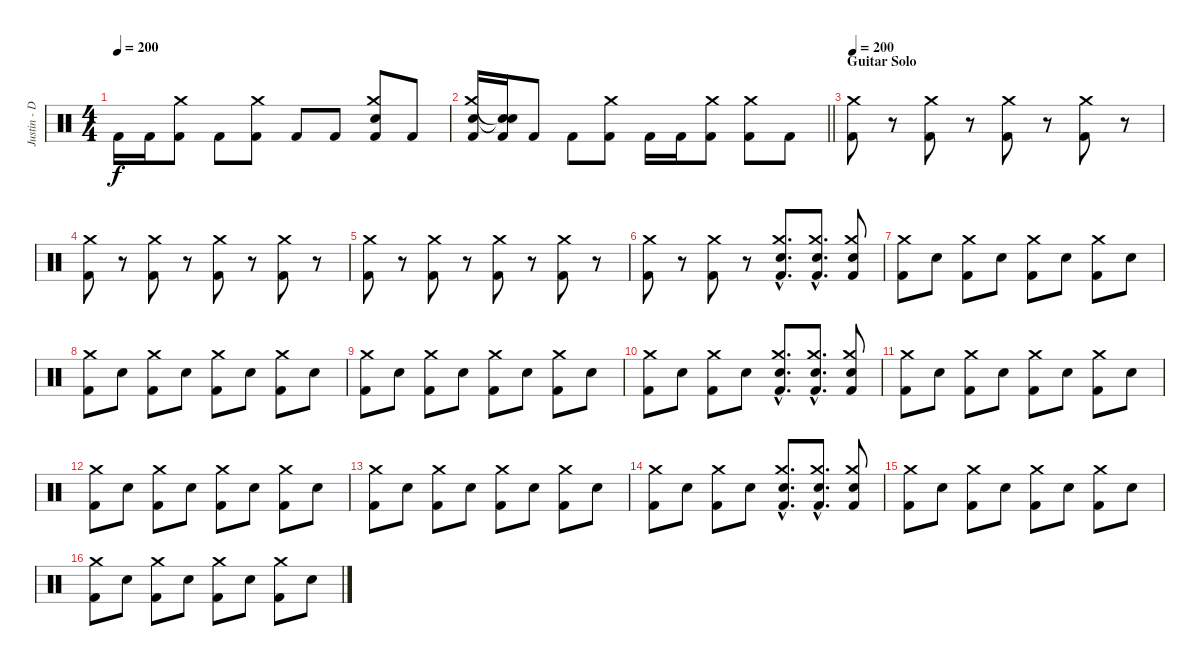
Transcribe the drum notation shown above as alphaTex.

\track ("Justin - Drums" "Justin - D") {instrument percussion}
\staff {score}
\articulation defaults
\ts (4 4)
\tempo 200
\clef neutral
\ks c "Kick (hit) 2".16{dy f} "Kick (hit) 2".16
("Crash medium (hit)" "Kick (hit) 2").8 "Kick (hit) 2".8 ("Crash medium (hit)" "Kick (hit) 2").8 "Kick (hit) 2".8 "Kick (hit) 2".8 ("Crash medium (hit)" "Snare (hit) 2" "Kick (hit) 2").8 "Kick (hit) 2".8 |
\barLineRight lightlight
("Crash medium (hit)" "Snare (hit) 2" "Kick (hit) 2").16 ("Snare (hit)"{t} "Snare (hit)"{t} "Kick (hit) 2").16 "Kick (hit) 2".8 "Kick (hit) 2".8 ("Crash medium (hit)" "Kick (hit) 2").8 "Kick (hit) 2".16 "Kick (hit) 2".16 ("Crash medium (hit)" "Kick (hit) 2").8 ("Crash medium (hit)" "Kick (hit) 2").8 "Kick (hit) 2".8 |
\section ("" "Guitar Solo")
\tempo 200
("Crash medium (hit)" "Kick (hit) 2").8 r.8 ("Crash medium (hit)" "Kick (hit) 2").8 r.8 ("Crash medium (hit)" "Kick (hit) 2").8 r.8 ("Crash medium (hit)" "Kick (hit) 2").8 r.8 |
("Crash medium (hit)" "Kick (hit) 2").8 r.8 ("Crash medium (hit)" "Kick (hit) 2").8 r.8 ("Crash medium (hit)" "Kick (hit) 2").8 r.8 ("Crash medium (hit)" "Kick (hit) 2").8 r.8 |
("Crash medium (hit)" "Kick (hit) 2").8 r.8 ("Crash medium (hit)" "Kick (hit) 2").8 r.8 ("Crash medium (hit)" "Kick (hit) 2").8 r.8 ("Crash medium (hit)" "Kick (hit) 2").8 r.8 |
("Crash medium (hit)" "Kick (hit) 2").8 r.8 ("Crash medium (hit)" "Kick (hit) 2").8 r.8 ("Crash medium (hit)"{hac} "Snare (hit) 2"{hac} "Kick (hit) 2"{hac}).8{d} ("Crash medium (hit)"{hac} "Snare (hit) 2"{hac} "Kick (hit) 2"{hac}).8{d} ("Crash medium (hit)" "Snare (hit) 2" "Kick (hit) 2").8 |
("Crash medium (hit)" "Kick (hit) 2").8 "Snare (hit) 2".8 ("Crash medium (hit)" "Kick (hit) 2").8 "Snare (hit) 2".8 ("Crash medium (hit)" "Kick (hit) 2").8 "Snare (hit) 2".8 ("Crash medium (hit)" "Kick (hit) 2").8 "Snare (hit) 2".8 |
("Crash medium (hit)" "Kick (hit) 2").8 "Snare (hit) 2".8 ("Crash medium (hit)" "Kick (hit) 2").8 "Snare (hit) 2".8 ("Crash medium (hit)" "Kick (hit) 2").8 "Snare (hit) 2".8 ("Crash medium (hit)" "Kick (hit) 2").8 "Snare (hit) 2".8 |
("Crash medium (hit)" "Kick (hit) 2").8 "Snare (hit) 2".8 ("Crash medium (hit)" "Kick (hit) 2").8 "Snare (hit) 2".8 ("Crash medium (hit)" "Kick (hit) 2").8 "Snare (hit) 2".8 ("Crash medium (hit)" "Kick (hit) 2").8 "Snare (hit) 2".8 |
("Crash medium (hit)" "Kick (hit) 2").8 "Snare (hit) 2".8 ("Crash medium (hit)" "Kick (hit) 2").8 "Snare (hit) 2".8 ("Crash medium (hit)"{hac} "Snare (hit) 2"{hac} "Kick (hit) 2"{hac}).8{d} ("Crash medium (hit)"{hac} "Snare (hit) 2"{hac} "Kick (hit) 2"{hac}).8{d} ("Crash medium (hit)" "Snare (hit) 2" "Kick (hit) 2").8 |
("Crash medium (hit)" "Kick (hit) 2").8 "Snare (hit) 2".8 ("Crash medium (hit)" "Kick (hit) 2").8 "Snare (hit) 2".8 ("Crash medium (hit)" "Kick (hit) 2").8 "Snare (hit) 2".8 ("Crash medium (hit)" "Kick (hit) 2").8 "Snare (hit) 2".8 |
("Crash medium (hit)" "Kick (hit) 2").8 "Snare (hit) 2".8 ("Crash medium (hit)" "Kick (hit) 2").8 "Snare (hit) 2".8 ("Crash medium (hit)" "Kick (hit) 2").8 "Snare (hit) 2".8 ("Crash medium (hit)" "Kick (hit) 2").8 "Snare (hit) 2".8 |
("Crash medium (hit)" "Kick (hit) 2").8 "Snare (hit) 2".8 ("Crash medium (hit)" "Kick (hit) 2").8 "Snare (hit) 2".8 ("Crash medium (hit)" "Kick (hit) 2").8 "Snare (hit) 2".8 ("Crash medium (hit)" "Kick (hit) 2").8 "Snare (hit) 2".8 |
("Crash medium (hit)" "Kick (hit) 2").8 "Snare (hit) 2".8 ("Crash medium (hit)" "Kick (hit) 2").8 "Snare (hit) 2".8 ("Crash medium (hit)"{hac} "Snare (hit) 2"{hac} "Kick (hit) 2"{hac}).8{d} ("Crash medium (hit)"{hac} "Snare (hit) 2"{hac} "Kick (hit) 2"{hac}).8{d} ("Crash medium (hit)" "Snare (hit) 2" "Kick (hit) 2").8 |
("Crash medium (hit)" "Kick (hit) 2").8 "Snare (hit) 2".8 ("Crash medium (hit)" "Kick (hit) 2").8 "Snare (hit) 2".8 ("Crash medium (hit)" "Kick (hit) 2").8 "Snare (hit) 2".8 ("Crash medium (hit)" "Kick (hit) 2").8 "Snare (hit) 2".8 |
("Crash medium (hit)" "Kick (hit) 2").8 "Snare (hit) 2".8 ("Crash medium (hit)" "Kick (hit) 2").8 "Snare (hit) 2".8 ("Crash medium (hit)" "Kick (hit) 2").8 "Snare (hit) 2".8 ("Crash medium (hit)" "Kick (hit) 2").8 "Snare (hit) 2".8
